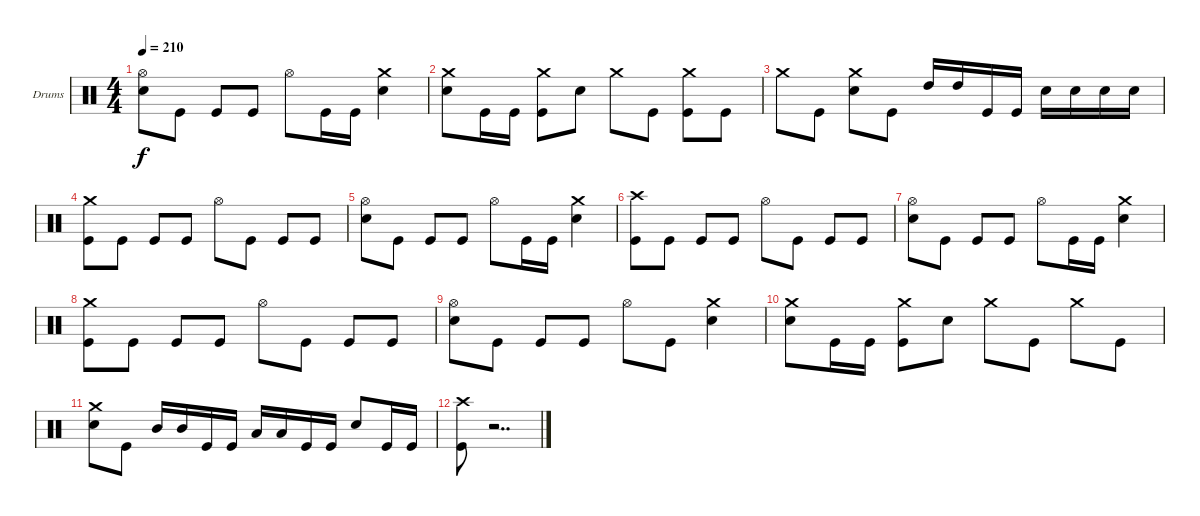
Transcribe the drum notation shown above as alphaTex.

\bracketExtendMode groupsimilarinstruments
\firstSystemTrackNameOrientation horizontal
\otherSystemsTrackNameOrientation horizontal
\track ("Drumkit" "Drums") {instrument percussion}
\staff {score}
\articulation defaults
\ts (4 4)
\tempo 210
\clef neutral
\ks c
("Hi-Hat (open)" "Snare (hit) 2").8{dy f} "Kick (hit)".8 "Kick (hit)".8 "Kick (hit)".8 "Hi-Hat (open)".8 "Kick (hit)".16 "Kick (hit)".16 ("Crash medium (hit)" "Snare (hit) 2").4 |
("Crash medium (hit)" "Snare (hit) 2").8 "Kick (hit)".16 "Kick (hit)".16 ("Crash medium (hit)" "Kick (hit)").8 "Snare (hit) 2".8 "Crash medium (hit)".8 "Kick (hit)".8 ("Crash medium (hit)" "Kick (hit)").8 "Kick (hit)".8 |
"Crash medium (hit)".8 "Kick (hit)".8 ("Crash medium (hit)" "Snare (hit) 2").8 "Kick (hit)".8 "High Tom (hit)".16 "High Tom (hit)".16 "Kick (hit)".16 "Kick (hit)".16 "Snare (hit) 2".16 "Snare (hit) 2".16 "Snare (hit) 2".16 "Snare (hit) 2".16 |
("Crash medium (hit)" "Kick (hit)").8 "Kick (hit)".8 "Kick (hit)".8 "Kick (hit)".8 "Hi-Hat (open)".8 "Kick (hit)".8 "Kick (hit)".8 "Kick (hit)".8 |
("Hi-Hat (open)" "Snare (hit) 2").8 "Kick (hit)".8 "Kick (hit)".8 "Kick (hit)".8 "Hi-Hat (open)".8 "Kick (hit)".16 "Kick (hit)".16 ("Crash medium (hit)" "Snare (hit) 2").4 |
("Crash high (hit)" "Kick (hit)").8 "Kick (hit)".8 "Kick (hit)".8 "Kick (hit)".8 "Hi-Hat (open)".8 "Kick (hit)".8 "Kick (hit)".8 "Kick (hit)".8 |
("Hi-Hat (open)" "Snare (hit) 2").8 "Kick (hit)".8 "Kick (hit)".8 "Kick (hit)".8 "Hi-Hat (open)".8 "Kick (hit)".16 "Kick (hit)".16 ("Crash medium (hit)" "Snare (hit) 2").4 |
("Crash medium (hit)" "Kick (hit)").8 "Kick (hit)".8 "Kick (hit)".8 "Kick (hit)".8 "Hi-Hat (open)".8 "Kick (hit)".8 "Kick (hit)".8 "Kick (hit)".8 |
("Hi-Hat (open)" "Snare (hit) 2").8 "Kick (hit)".8 "Kick (hit)".8 "Kick (hit)".8 "Hi-Hat (open)".8 "Kick (hit)".8 ("Crash medium (hit)" "Snare (hit) 2").4 |
("Crash medium (hit)" "Snare (hit) 2").8 "Kick (hit)".16 "Kick (hit)".16 ("Crash medium (hit)" "Kick (hit)").8 "Snare (hit) 2".8 "Crash medium (hit)".8 "Kick (hit)".8 "Crash medium (hit)".8 "Kick (hit)".8 |
("Crash medium (hit)" "Snare (hit) 2").8 "Kick (hit)".8 "Mid Tom (hit)".16 "Mid Tom (hit)".16 "Kick (hit)".16 "Kick (hit)".16 "Low Tom (hit)".16 "Low Tom (hit)".16 "Kick (hit)".16 "Kick (hit)".16 "Snare (hit) 2".8 "Kick (hit)".16 "Kick (hit)".16 |
("Crash high (hit)" "Kick (hit)").8 r.2{dd}
